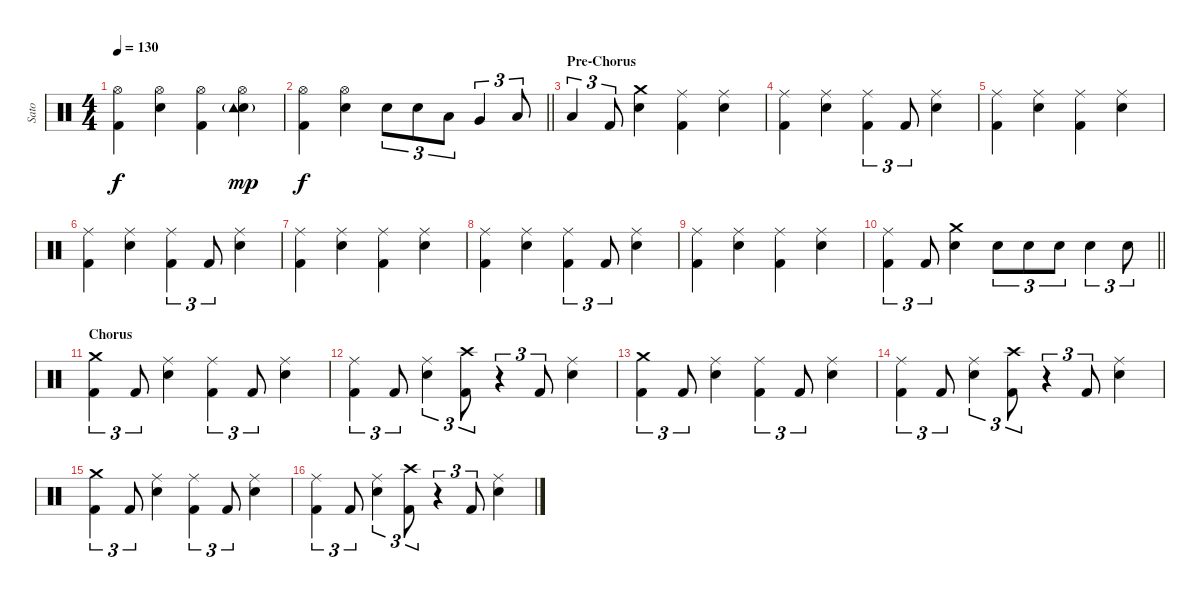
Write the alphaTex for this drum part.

\track ("Sato" "Sato") {instrument percussion}
\staff {score}
\articulation defaults
\ts (4 4)
\tempo 130
\clef neutral
\ks c
("Hi-Hat (open)" "Kick (hit) 2").4{dy f} ("Hi-Hat (open)" "Electric Snare (hit)").4 ("Hi-Hat (open)" "Kick (hit) 2").4 ("Hi-Hat (open)" "Electric Snare (hit)" "Tambourine (hit)"{g}).4{dy mp} |
\barLineRight lightlight
("Hi-Hat (open)" "Kick (hit) 2").4{dy f} ("Hi-Hat (open)" "Electric Snare (hit)").4 "Electric Snare (hit)".8{tu (3 2)} "Electric Snare (hit)".8{tu (3 2)} "Low Tom (hit)".8{tu (3 2)} "Very Low Tom (hit)".4{tu (3 2)} "Low Floor Tom (hit)".8{tu (3 2)} |
\section ("" "Pre-Chorus")
"Low Floor Tom (hit)".4{tu (3 2)} "Kick (hit) 2".8{tu (3 2)} ("Crash medium (hit)" "Electric Snare (hit)").4 ("Ride (middle)" "Kick (hit) 2").4 ("Ride (middle)" "Electric Snare (hit)").4 |
("Ride (middle)" "Kick (hit) 2").4 ("Ride (middle)" "Electric Snare (hit)").4 ("Ride (middle)" "Kick (hit) 2").4{tu (3 2)} "Kick (hit) 2".8{tu (3 2)} ("Ride (middle)" "Electric Snare (hit)").4 |
("Ride (middle)" "Kick (hit) 2").4 ("Ride (middle)" "Electric Snare (hit)").4 ("Ride (middle)" "Kick (hit) 2").4 ("Ride (middle)" "Electric Snare (hit)").4 |
("Ride (middle)" "Kick (hit) 2").4 ("Ride (middle)" "Electric Snare (hit)").4 ("Ride (middle)" "Kick (hit) 2").4{tu (3 2)} "Kick (hit) 2".8{tu (3 2)} ("Ride (middle)" "Electric Snare (hit)").4 |
("Ride (middle)" "Kick (hit) 2").4 ("Ride (middle)" "Electric Snare (hit)").4 ("Ride (middle)" "Kick (hit) 2").4 ("Ride (middle)" "Electric Snare (hit)").4 |
("Ride (middle)" "Kick (hit) 2").4 ("Ride (middle)" "Electric Snare (hit)").4 ("Ride (middle)" "Kick (hit) 2").4{tu (3 2)} "Kick (hit) 2".8{tu (3 2)} ("Ride (middle)" "Electric Snare (hit)").4 |
("Ride (middle)" "Kick (hit) 2").4 ("Ride (middle)" "Electric Snare (hit)").4 ("Ride (middle)" "Kick (hit) 2").4 ("Ride (middle)" "Electric Snare (hit)").4 |
\barLineRight lightlight
("Ride (middle)" "Kick (hit) 2").4{tu (3 2)} "Kick (hit) 2".8{tu (3 2)} ("Crash medium (hit)" "Electric Snare (hit)").4 "Electric Snare (hit)".8{tu (3 2)} "Electric Snare (hit)".8{tu (3 2)} "Electric Snare (hit)".8{tu (3 2)} "Electric Snare (hit)".4{tu (3 2)} "Electric Snare (hit)".8{tu (3 2)} |
\section ("" "Chorus")
("Crash medium (hit)" "Kick (hit) 2").4{tu (3 2)} "Kick (hit) 2".8{tu (3 2)} ("Ride (middle)" "Electric Snare (hit)").4 ("Ride (middle)" "Kick (hit) 2").4{tu (3 2)} "Kick (hit) 2".8{tu (3 2)} ("Ride (middle)" "Electric Snare (hit)").4 |
("Ride (middle)" "Kick (hit) 2").4{tu (3 2)} "Kick (hit) 2".8{tu (3 2)} ("Ride (middle)" "Electric Snare (hit)").4{tu (3 2)} ("Crash high (hit)" "Kick (hit) 2").8{tu (3 2)} r.4{tu (3 2)} "Kick (hit) 2".8{tu (3 2)} ("Ride (middle)" "Electric Snare (hit)").4 |
("Crash medium (hit)" "Kick (hit) 2").4{tu (3 2)} "Kick (hit) 2".8{tu (3 2)} ("Ride (middle)" "Electric Snare (hit)").4 ("Ride (middle)" "Kick (hit) 2").4{tu (3 2)} "Kick (hit) 2".8{tu (3 2)} ("Ride (middle)" "Electric Snare (hit)").4 |
("Ride (middle)" "Kick (hit) 2").4{tu (3 2)} "Kick (hit) 2".8{tu (3 2)} ("Ride (middle)" "Electric Snare (hit)").4{tu (3 2)} ("Crash high (hit)" "Kick (hit) 2").8{tu (3 2)} r.4{tu (3 2)} "Kick (hit) 2".8{tu (3 2)} ("Ride (middle)" "Electric Snare (hit)").4 |
("Crash medium (hit)" "Kick (hit) 2").4{tu (3 2)} "Kick (hit) 2".8{tu (3 2)} ("Ride (middle)" "Electric Snare (hit)").4 ("Ride (middle)" "Kick (hit) 2").4{tu (3 2)} "Kick (hit) 2".8{tu (3 2)} ("Ride (middle)" "Electric Snare (hit)").4 |
("Ride (middle)" "Kick (hit) 2").4{tu (3 2)} "Kick (hit) 2".8{tu (3 2)} ("Ride (middle)" "Electric Snare (hit)").4{tu (3 2)} ("Crash high (hit)" "Kick (hit) 2").8{tu (3 2)} r.4{tu (3 2)} "Kick (hit) 2".8{tu (3 2)} ("Ride (middle)" "Electric Snare (hit)").4
